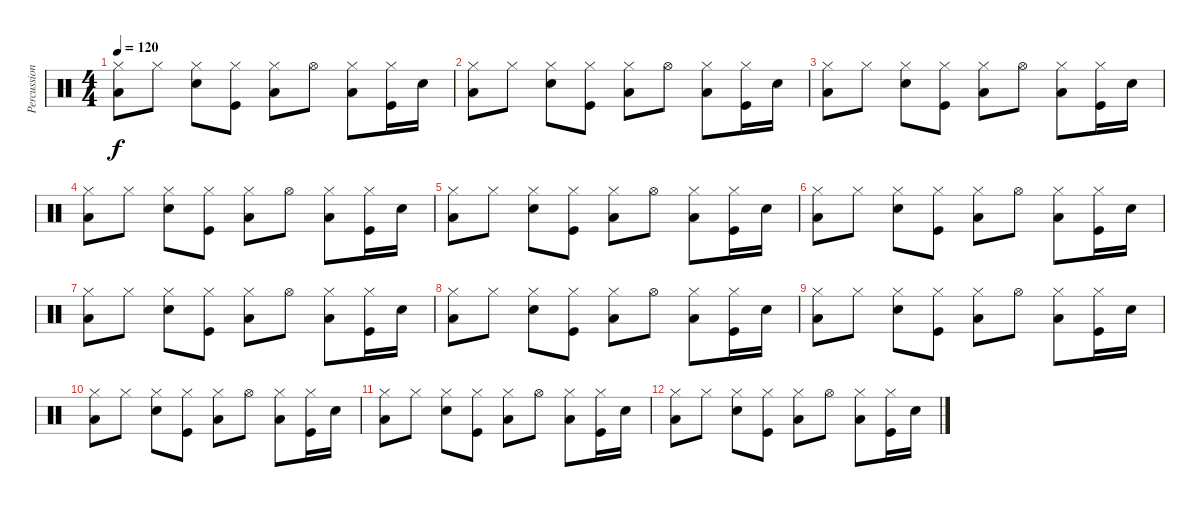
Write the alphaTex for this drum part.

\track ("Percussion" "Percussion") {instrument percussion}
\staff {score}
\articulation defaults
\ts (4 4)
\tempo 120
\clef neutral
\ks c
("Hi-Hat (closed)" "Low Tom (hit)").8{dy f} "Hi-Hat (closed)".8 ("Hi-Hat (closed)" "Snare (hit) 2").8 ("Hi-Hat (closed)" "Kick (hit)").8 ("Hi-Hat (closed)" "Low Tom (hit)").8 "Hi-Hat (open)".8 ("Hi-Hat (closed)" "Low Tom (hit)").8 ("Hi-Hat (closed)" "Kick (hit)").16 "Snare (hit) 2".16 |
("Hi-Hat (closed)" "Low Tom (hit)").8 "Hi-Hat (closed)".8 ("Hi-Hat (closed)" "Snare (hit) 2").8 ("Hi-Hat (closed)" "Kick (hit)").8 ("Hi-Hat (closed)" "Low Tom (hit)").8 "Hi-Hat (open)".8 ("Hi-Hat (closed)" "Low Tom (hit)").8 ("Hi-Hat (closed)" "Kick (hit)").16 "Snare (hit) 2".16 |
("Hi-Hat (closed)" "Low Tom (hit)").8 "Hi-Hat (closed)".8 ("Hi-Hat (closed)" "Snare (hit) 2").8 ("Hi-Hat (closed)" "Kick (hit)").8 ("Hi-Hat (closed)" "Low Tom (hit)").8 "Hi-Hat (open)".8 ("Hi-Hat (closed)" "Low Tom (hit)").8 ("Hi-Hat (closed)" "Kick (hit)").16 "Snare (hit) 2".16 |
("Hi-Hat (closed)" "Low Tom (hit)").8 "Hi-Hat (closed)".8 ("Hi-Hat (closed)" "Snare (hit) 2").8 ("Hi-Hat (closed)" "Kick (hit)").8 ("Hi-Hat (closed)" "Low Tom (hit)").8 "Hi-Hat (open)".8 ("Hi-Hat (closed)" "Low Tom (hit)").8 ("Hi-Hat (closed)" "Kick (hit)").16 "Snare (hit) 2".16 |
("Hi-Hat (closed)" "Low Tom (hit)").8 "Hi-Hat (closed)".8 ("Hi-Hat (closed)" "Snare (hit) 2").8 ("Hi-Hat (closed)" "Kick (hit)").8 ("Hi-Hat (closed)" "Low Tom (hit)").8 "Hi-Hat (open)".8 ("Hi-Hat (closed)" "Low Tom (hit)").8 ("Hi-Hat (closed)" "Kick (hit)").16 "Snare (hit) 2".16 |
("Hi-Hat (closed)" "Low Tom (hit)").8 "Hi-Hat (closed)".8 ("Hi-Hat (closed)" "Snare (hit) 2").8 ("Hi-Hat (closed)" "Kick (hit)").8 ("Hi-Hat (closed)" "Low Tom (hit)").8 "Hi-Hat (open)".8 ("Hi-Hat (closed)" "Low Tom (hit)").8 ("Hi-Hat (closed)" "Kick (hit)").16 "Snare (hit) 2".16 |
("Hi-Hat (closed)" "Low Tom (hit)").8 "Hi-Hat (closed)".8 ("Hi-Hat (closed)" "Snare (hit) 2").8 ("Hi-Hat (closed)" "Kick (hit)").8 ("Hi-Hat (closed)" "Low Tom (hit)").8 "Hi-Hat (open)".8 ("Hi-Hat (closed)" "Low Tom (hit)").8 ("Hi-Hat (closed)" "Kick (hit)").16 "Snare (hit) 2".16 |
("Hi-Hat (closed)" "Low Tom (hit)").8 "Hi-Hat (closed)".8 ("Hi-Hat (closed)" "Snare (hit) 2").8 ("Hi-Hat (closed)" "Kick (hit)").8 ("Hi-Hat (closed)" "Low Tom (hit)").8 "Hi-Hat (open)".8 ("Hi-Hat (closed)" "Low Tom (hit)").8 ("Hi-Hat (closed)" "Kick (hit)").16 "Snare (hit) 2".16 |
("Hi-Hat (closed)" "Low Tom (hit)").8 "Hi-Hat (closed)".8 ("Hi-Hat (closed)" "Snare (hit) 2").8 ("Hi-Hat (closed)" "Kick (hit)").8 ("Hi-Hat (closed)" "Low Tom (hit)").8 "Hi-Hat (open)".8 ("Hi-Hat (closed)" "Low Tom (hit)").8 ("Hi-Hat (closed)" "Kick (hit)").16 "Snare (hit) 2".16 |
("Hi-Hat (closed)" "Low Tom (hit)").8 "Hi-Hat (closed)".8 ("Hi-Hat (closed)" "Snare (hit) 2").8 ("Hi-Hat (closed)" "Kick (hit)").8 ("Hi-Hat (closed)" "Low Tom (hit)").8 "Hi-Hat (open)".8 ("Hi-Hat (closed)" "Low Tom (hit)").8 ("Hi-Hat (closed)" "Kick (hit)").16 "Snare (hit) 2".16 |
("Hi-Hat (closed)" "Low Tom (hit)").8 "Hi-Hat (closed)".8 ("Hi-Hat (closed)" "Snare (hit) 2").8 ("Hi-Hat (closed)" "Kick (hit)").8 ("Hi-Hat (closed)" "Low Tom (hit)").8 "Hi-Hat (open)".8 ("Hi-Hat (closed)" "Low Tom (hit)").8 ("Hi-Hat (closed)" "Kick (hit)").16 "Snare (hit) 2".16 |
("Hi-Hat (closed)" "Low Tom (hit)").8 "Hi-Hat (closed)".8 ("Hi-Hat (closed)" "Snare (hit) 2").8 ("Hi-Hat (closed)" "Kick (hit)").8 ("Hi-Hat (closed)" "Low Tom (hit)").8 "Hi-Hat (open)".8 ("Hi-Hat (closed)" "Low Tom (hit)").8 ("Hi-Hat (closed)" "Kick (hit)").16 "Snare (hit) 2".16
